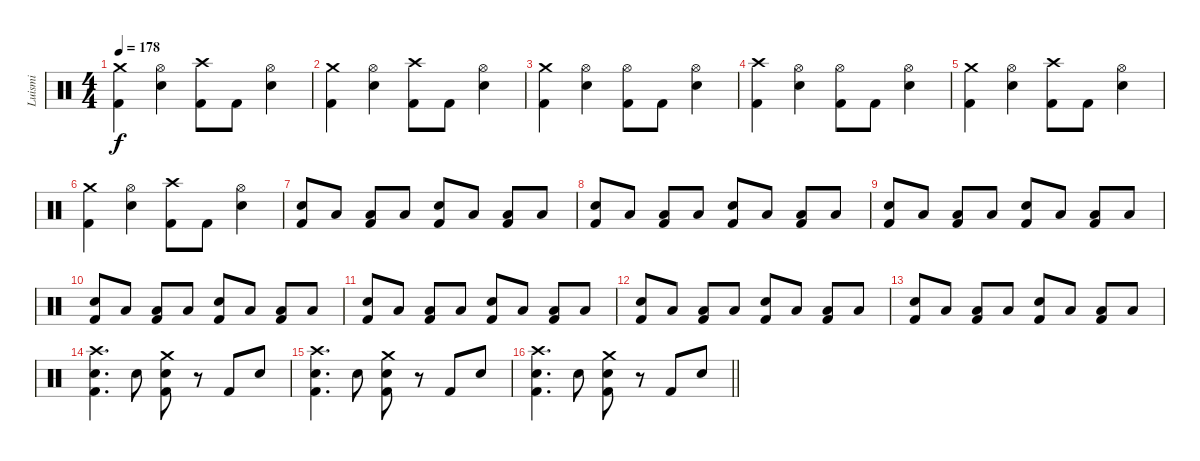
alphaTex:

\track ("Luismi" "Luismi") {instrument percussion}
\staff {score}
\articulation defaults
\ts (4 4)
\tempo 178
\clef neutral
\ks c
("Crash medium (hit)" "Kick (hit) 2").4{dy f} ("Hi-Hat (open)" "Snare (hit) 2").4 ("Crash high (hit)" "Kick (hit) 2").8 "Kick (hit) 2".8 ("Hi-Hat (open)" "Snare (hit) 2").4 |
("Crash medium (hit)" "Kick (hit) 2").4 ("Hi-Hat (open)" "Snare (hit) 2").4 ("Crash high (hit)" "Kick (hit) 2").8 "Kick (hit) 2".8 ("Hi-Hat (open)" "Snare (hit) 2").4 |
("Crash medium (hit)" "Kick (hit) 2").4 ("Hi-Hat (open)" "Snare (hit) 2").4 ("Hi-Hat (open)" "Kick (hit) 2").8 "Kick (hit) 2".8 ("Hi-Hat (open)" "Snare (hit) 2").4 |
("Crash high (hit)" "Kick (hit) 2").4 ("Hi-Hat (open)" "Snare (hit) 2").4 ("Hi-Hat (open)" "Kick (hit) 2").8 "Kick (hit) 2".8 ("Hi-Hat (open)" "Snare (hit) 2").4 |
("Crash medium (hit)" "Kick (hit) 2").4 ("Hi-Hat (open)" "Snare (hit) 2").4 ("Crash high (hit)" "Kick (hit) 2").8 "Kick (hit) 2".8 ("Hi-Hat (open)" "Snare (hit) 2").4 |
("Crash medium (hit)" "Kick (hit) 2").4 ("Hi-Hat (open)" "Snare (hit) 2").4 ("Crash high (hit)" "Kick (hit) 2").8 "Kick (hit) 2".8 ("Hi-Hat (open)" "Snare (hit) 2").4 |
("Snare (hit) 2" "Kick (hit) 2").8 "Low Tom (hit)".8 ("Low Floor Tom (hit)" "Kick (hit) 2").8 "Low Floor Tom (hit)".8 ("Snare (hit) 2" "Kick (hit) 2").8 "Low Tom (hit)".8 ("Low Floor Tom (hit)" "Kick (hit) 2").8 "Low Floor Tom (hit)".8 |
("Snare (hit) 2" "Kick (hit) 2").8 "Low Tom (hit)".8 ("Low Floor Tom (hit)" "Kick (hit) 2").8 "Low Floor Tom (hit)".8 ("Snare (hit) 2" "Kick (hit) 2").8 "Low Tom (hit)".8 ("Low Floor Tom (hit)" "Kick (hit) 2").8 "Low Floor Tom (hit)".8 |
("Snare (hit) 2" "Kick (hit) 2").8 "Low Tom (hit)".8 ("Low Floor Tom (hit)" "Kick (hit) 2").8 "Low Floor Tom (hit)".8 ("Snare (hit) 2" "Kick (hit) 2").8 "Low Tom (hit)".8 ("Low Floor Tom (hit)" "Kick (hit) 2").8 "Low Floor Tom (hit)".8 |
("Snare (hit) 2" "Kick (hit) 2").8 "Low Tom (hit)".8 ("Low Floor Tom (hit)" "Kick (hit) 2").8 "Low Floor Tom (hit)".8 ("Snare (hit) 2" "Kick (hit) 2").8 "Low Tom (hit)".8 ("Low Floor Tom (hit)" "Kick (hit) 2").8 "Low Floor Tom (hit)".8 |
("Snare (hit) 2" "Kick (hit) 2").8 "Low Tom (hit)".8 ("Low Floor Tom (hit)" "Kick (hit) 2").8 "Low Floor Tom (hit)".8 ("Snare (hit) 2" "Kick (hit) 2").8 "Low Tom (hit)".8 ("Low Floor Tom (hit)" "Kick (hit) 2").8 "Low Floor Tom (hit)".8 |
("Snare (hit) 2" "Kick (hit) 2").8 "Low Tom (hit)".8 ("Low Floor Tom (hit)" "Kick (hit) 2").8 "Low Floor Tom (hit)".8 ("Snare (hit) 2" "Kick (hit) 2").8 "Low Tom (hit)".8 ("Low Floor Tom (hit)" "Kick (hit) 2").8 "Low Floor Tom (hit)".8 |
("Snare (hit) 2" "Kick (hit) 2").8 "Low Tom (hit)".8 ("Low Floor Tom (hit)" "Kick (hit) 2").8 "Low Floor Tom (hit)".8 ("Snare (hit) 2" "Kick (hit) 2").8 "Low Tom (hit)".8 ("Low Floor Tom (hit)" "Kick (hit) 2").8 "Low Floor Tom (hit)".8 |
("Crash high (hit)" "Snare (hit) 2" "Kick (hit) 2").4{d} "Snare (hit) 2".8 ("Crash medium (hit)" "Snare (hit) 2" "Kick (hit) 2").8 r.8 "Kick (hit) 2".8 "Snare (hit) 2".8 |
("Crash high (hit)" "Snare (hit) 2" "Kick (hit) 2").4{d} "Snare (hit) 2".8 ("Crash medium (hit)" "Snare (hit) 2" "Kick (hit) 2").8 r.8 "Kick (hit) 2".8 "Snare (hit) 2".8 |
\barLineRight lightlight
("Crash high (hit)" "Snare (hit) 2" "Kick (hit) 2").4{d} "Snare (hit) 2".8 ("Crash medium (hit)" "Snare (hit) 2" "Kick (hit) 2").8 r.8 "Kick (hit) 2".8 "Snare (hit) 2".8
